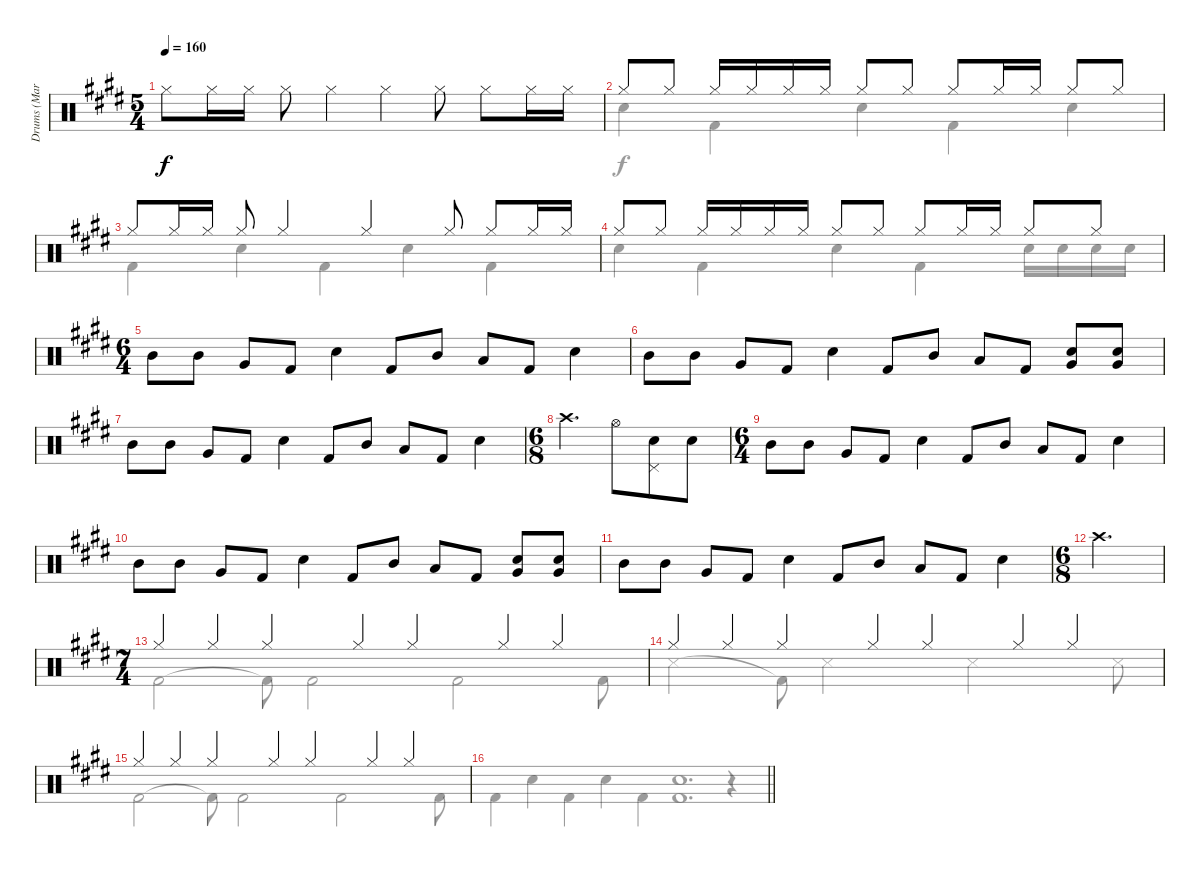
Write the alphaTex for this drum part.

\track ("Drums (Mark Zonder)" "Drums (Mar") {instrument percussion}
\staff {score}
\articulation defaults
\voice
\ts (5 4)
\tempo 160
\clef neutral
\ks c#minor "Hi-Hat (closed)".8{dy f} "Hi-Hat (closed)".16 "Hi-Hat (closed)".16 "Hi-Hat (closed)".8 "Hi-Hat (closed)".4 "Hi-Hat (closed)".4 "Hi-Hat (closed)".8 "Hi-Hat (closed)".8 "Hi-Hat (closed)".16 "Hi-Hat (closed)".16
|
"Hi-Hat (closed)".8 "Hi-Hat (closed)".8 "Hi-Hat (closed)".16 "Hi-Hat (closed)".16 "Hi-Hat (closed)".16 "Hi-Hat (closed)".16 "Hi-Hat (closed)".8 "Hi-Hat (closed)".8 "Hi-Hat (closed)".8 "Hi-Hat (closed)".16 "Hi-Hat (closed)".16 "Hi-Hat (closed)".8 "Hi-Hat (closed)".8 |
"Hi-Hat (closed)".8 "Hi-Hat (closed)".16 "Hi-Hat (closed)".16 "Hi-Hat (closed)".8 "Hi-Hat (closed)".4 "Hi-Hat (closed)".4 "Hi-Hat (closed)".8 "Hi-Hat (closed)".8 "Hi-Hat (closed)".16 "Hi-Hat (closed)".16 |
"Hi-Hat (closed)".8 "Hi-Hat (closed)".8 "Hi-Hat (closed)".16 "Hi-Hat (closed)".16 "Hi-Hat (closed)".16 "Hi-Hat (closed)".16 "Hi-Hat (closed)".8 "Hi-Hat (closed)".8 "Hi-Hat (closed)".8 "Hi-Hat (closed)".16 "Hi-Hat (closed)".16 "Hi-Hat (closed)".8 "Hi-Hat (closed)".8 |
\ts (6 4)
"Mid Tom (hit)".8 "Mid Tom (hit)".8 "Very Low Tom (hit)".8 "Kick (hit) 2".8 "Electric Snare (hit)".4 "Kick (hit) 2".8 "Mid Tom (hit)".8 "Low Tom (hit)".8 "Kick (hit) 2".8 "Electric Snare (hit)".4 |
"Mid Tom (hit)".8 "Mid Tom (hit)".8 "Very Low Tom (hit)".8 "Kick (hit) 2".8 "Electric Snare (hit)".4 "Kick (hit) 2".8 "Mid Tom (hit)".8 "Low Tom (hit)".8 "Kick (hit) 2".8 ("Electric Snare (hit)" "Very Low Tom (hit)").8 ("Electric Snare (hit)" "Very Low Tom (hit)").8 |
"Mid Tom (hit)".8 "Mid Tom (hit)".8 "Very Low Tom (hit)".8 "Kick (hit) 2".8 "Electric Snare (hit)".4 "Kick (hit) 2".8 "Mid Tom (hit)".8 "Low Tom (hit)".8 "Kick (hit) 2".8 "Electric Snare (hit)".4 |
\ts (6 8)
"Crash high (hit)".4{d} "Hi-Hat (open)".8 ("Pedal Hi-Hat (hit)" "Electric Snare (hit)").8 "Electric Snare (hit)".8 |
\ts (6 4)
"Mid Tom (hit)".8 "Mid Tom (hit)".8 "Very Low Tom (hit)".8 "Kick (hit) 2".8 "Electric Snare (hit)".4 "Kick (hit) 2".8 "Mid Tom (hit)".8 "Low Tom (hit)".8 "Kick (hit) 2".8 "Electric Snare (hit)".4 |
"Mid Tom (hit)".8 "Mid Tom (hit)".8 "Very Low Tom (hit)".8 "Kick (hit) 2".8 "Electric Snare (hit)".4 "Kick (hit) 2".8 "Mid Tom (hit)".8 "Low Tom (hit)".8 "Kick (hit) 2".8 ("Electric Snare (hit)" "Very Low Tom (hit)").8 ("Electric Snare (hit)" "Very Low Tom (hit)").8 |
"Mid Tom (hit)".8 "Mid Tom (hit)".8 "Very Low Tom (hit)".8 "Kick (hit) 2".8 "Electric Snare (hit)".4 "Kick (hit) 2".8 "Mid Tom (hit)".8 "Low Tom (hit)".8 "Kick (hit) 2".8 "Electric Snare (hit)".4 |
\ts (6 8)
"Crash high (hit)".2{d} |
\ts (7 4)
"Hi-Hat (closed)".4 "Hi-Hat (closed)".4 "Hi-Hat (closed)".4 "Hi-Hat (closed)".4 "Hi-Hat (closed)".4 "Hi-Hat (closed)".4 "Hi-Hat (closed)".4 |
"Hi-Hat (closed)".4 "Hi-Hat (closed)".4 "Hi-Hat (closed)".4 "Hi-Hat (closed)".4 "Hi-Hat (closed)".4 "Hi-Hat (closed)".4 "Hi-Hat (closed)".4 |
"Hi-Hat (closed)".4 "Hi-Hat (closed)".4 "Hi-Hat (closed)".4 "Hi-Hat (closed)".4 "Hi-Hat (closed)".4 "Hi-Hat (closed)".4 "Hi-Hat (closed)".4 |
\barLineRight lightlight
\voice
\clef neutral
\ottava regular
\simile none
\ks c#minor "Kick (hit) 2".4{dy f} "Electric Snare (hit)".4 "Kick (hit) 2".4 "Electric Snare (hit)".4 "Kick (hit) 2".4
|
"Electric Snare (hit)".4 "Kick (hit) 2".4 "Electric Snare (hit)".4 "Kick (hit) 2".4 "Electric Snare (hit)".4 |
"Kick (hit) 2".4 "Electric Snare (hit)".4 "Kick (hit) 2".4 "Electric Snare (hit)".4 "Kick (hit) 2".4 |
"Electric Snare (hit)".4 "Kick (hit) 2".4 "Electric Snare (hit)".4 "Kick (hit) 2".4 "Electric Snare (hit)".16 "Electric Snare (hit)".16 "Electric Snare (hit)".16 "Electric Snare (hit)".16 |
|
|
|
|
|
|
|
|
"Kick (hit) 2".2 "Kick (hit) 2"{t}.8 "Kick (hit) 2".2 "Kick (hit) 2".2 "Kick (hit) 2".8 |
"Snare (side stick) 3".2 "Kick (hit) 2"{t}.8 "Snare (side stick) 3".2 "Snare (side stick) 3".2 "Snare (side stick) 3".8 |
"Kick (hit) 2".2 "Kick (hit) 2"{t}.8 "Kick (hit) 2".2 "Kick (hit) 2".2 "Kick (hit) 2".8 |
\barLineRight lightlight
("Electric Snare (hit)" "Kick (hit) 2").1{d} r.4
